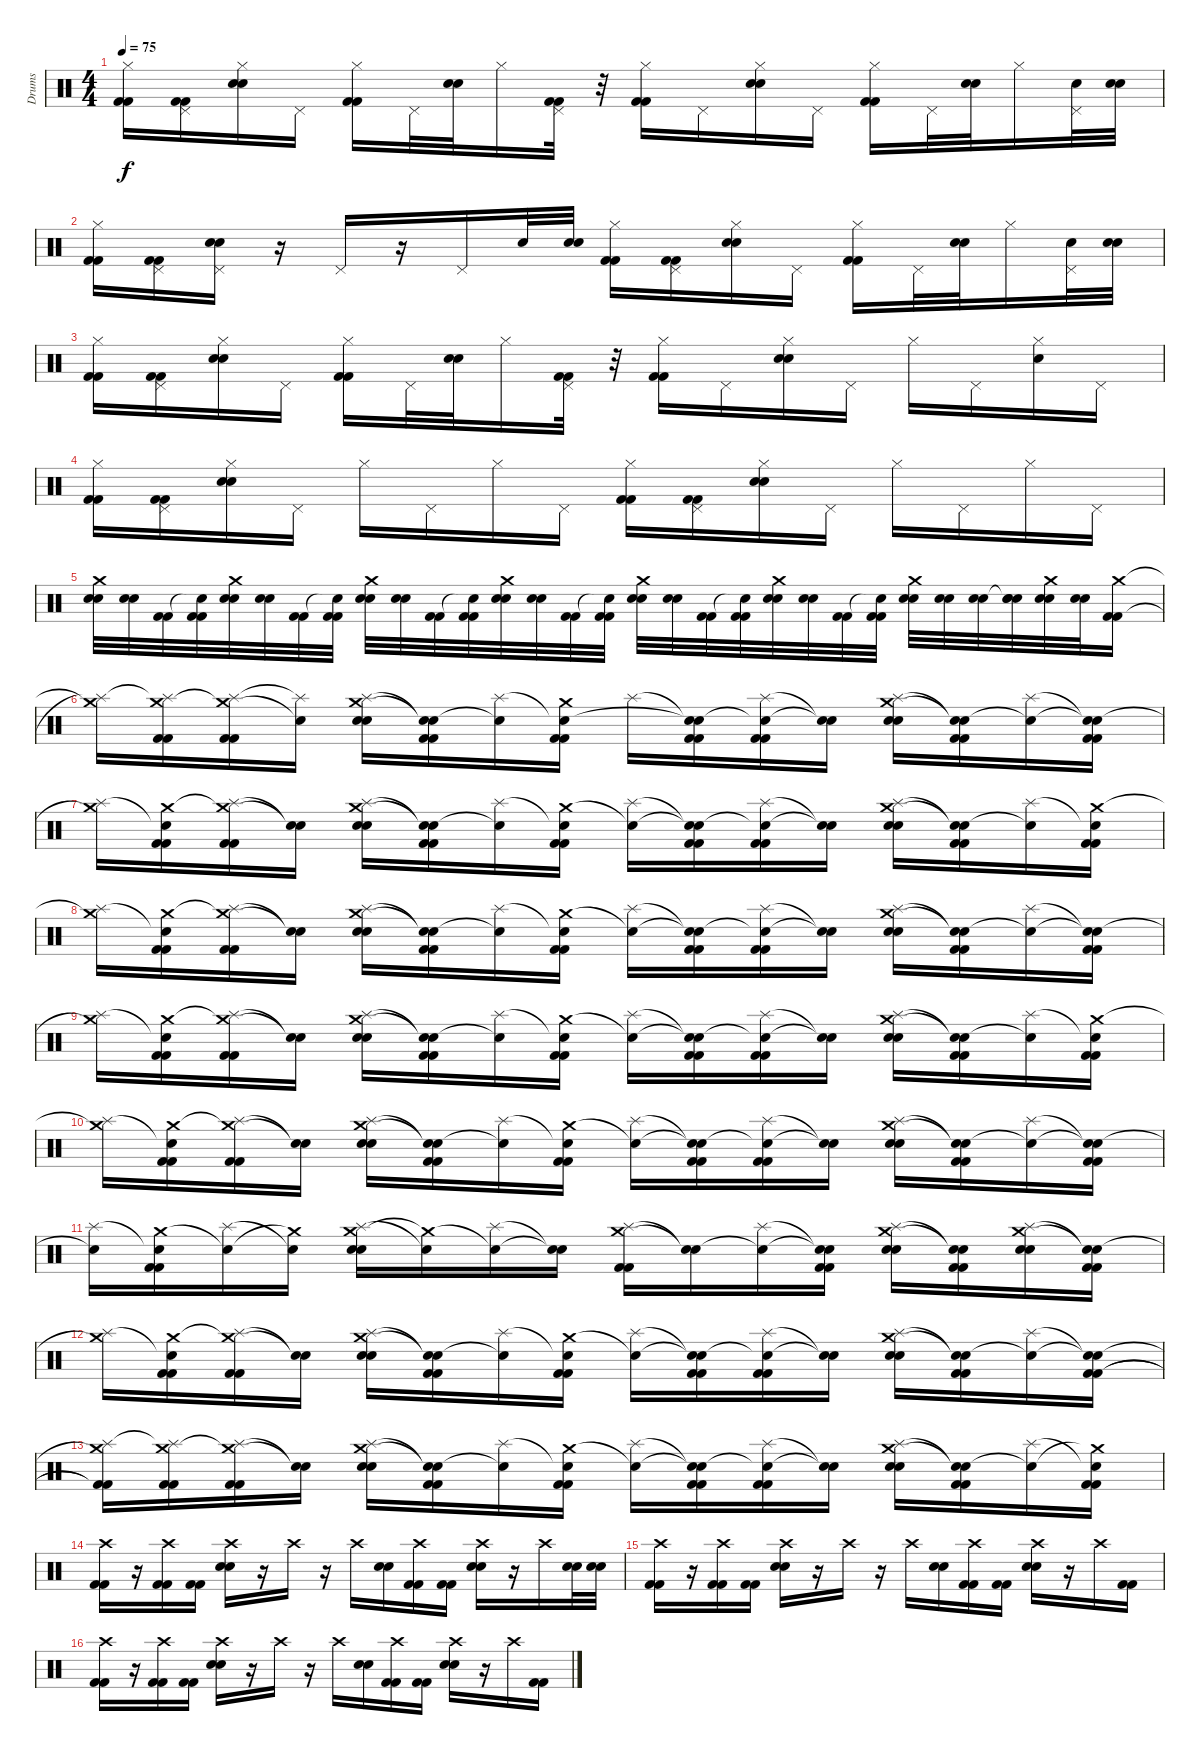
\track ("Drums" "Drums") {instrument percussion}
\staff {score}
\articulation defaults
\ts (4 4)
\tempo 75
\clef neutral
\ks c
("Hi-Hat (closed)" "Kick (hit) 2" "Kick (hit) 2").16{dy f} ("Pedal Hi-Hat (hit)" "Kick (hit) 2" "Kick (hit) 2").16 ("Hi-Hat (closed)" "Electric Snare (hit)" "Electric Snare (hit)").16 "Pedal Hi-Hat (hit)".16 ("Hi-Hat (closed)" "Kick (hit) 2" "Kick (hit) 2").16 "Pedal Hi-Hat (hit)".32 ("Electric Snare (hit)" "Electric Snare (hit)").32 "Hi-Hat (closed)".16 ("Pedal Hi-Hat (hit)" "Kick (hit) 2" "Kick (hit) 2").32 r.32 ("Hi-Hat (closed)" "Kick (hit) 2" "Kick (hit) 2").16 "Pedal Hi-Hat (hit)".16 ("Hi-Hat (closed)" "Electric Snare (hit)" "Electric Snare (hit)").16 "Pedal Hi-Hat (hit)".16 ("Hi-Hat (closed)" "Kick (hit) 2" "Kick (hit) 2").16 "Pedal Hi-Hat (hit)".32 ("Electric Snare (hit)" "Electric Snare (hit)").32 "Hi-Hat (closed)".16 ("Pedal Hi-Hat (hit)" "Electric Snare (hit)").32 ("Electric Snare (hit)" "Electric Snare (hit)").32 |
("Hi-Hat (closed)" "Kick (hit) 2" "Kick (hit) 2").16 ("Pedal Hi-Hat (hit)" "Kick (hit) 2" "Kick (hit) 2").16 ("Pedal Hi-Hat (hit)" "Electric Snare (hit)" "Electric Snare (hit)").16 r.16 "Pedal Hi-Hat (hit)".16 r.16 "Pedal Hi-Hat (hit)".16 "Electric Snare (hit)".32 ("Electric Snare (hit)" "Electric Snare (hit)").32 ("Hi-Hat (closed)" "Kick (hit) 2" "Kick (hit) 2").16 ("Pedal Hi-Hat (hit)" "Kick (hit) 2" "Kick (hit) 2").16 ("Hi-Hat (closed)" "Electric Snare (hit)" "Electric Snare (hit)").16 "Pedal Hi-Hat (hit)".16 ("Hi-Hat (closed)" "Kick (hit) 2" "Kick (hit) 2").16 "Pedal Hi-Hat (hit)".32 ("Electric Snare (hit)" "Electric Snare (hit)").32 "Hi-Hat (closed)".16 ("Pedal Hi-Hat (hit)" "Electric Snare (hit)").32 ("Electric Snare (hit)" "Electric Snare (hit)").32 |
("Hi-Hat (closed)" "Kick (hit) 2" "Kick (hit) 2").16 ("Pedal Hi-Hat (hit)" "Kick (hit) 2" "Kick (hit) 2").16 ("Hi-Hat (closed)" "Electric Snare (hit)" "Electric Snare (hit)").16 "Pedal Hi-Hat (hit)".16 ("Hi-Hat (closed)" "Kick (hit) 2" "Kick (hit) 2").16 "Pedal Hi-Hat (hit)".32 ("Electric Snare (hit)" "Electric Snare (hit)").32 "Hi-Hat (closed)".16 ("Pedal Hi-Hat (hit)" "Kick (hit) 2" "Kick (hit) 2").32 r.32 ("Hi-Hat (closed)" "Kick (hit) 2" "Kick (hit) 2").16 "Pedal Hi-Hat (hit)".16 ("Hi-Hat (closed)" "Electric Snare (hit)" "Electric Snare (hit)").16 "Pedal Hi-Hat (hit)".16 "Hi-Hat (closed)".16 "Pedal Hi-Hat (hit)".16 ("Hi-Hat (closed)" "Electric Snare (hit)").16 "Pedal Hi-Hat (hit)".16 |
("Hi-Hat (closed)" "Kick (hit) 2" "Kick (hit) 2").16 ("Pedal Hi-Hat (hit)" "Kick (hit) 2" "Kick (hit) 2").16 ("Hi-Hat (closed)" "Electric Snare (hit)" "Electric Snare (hit)").16 "Pedal Hi-Hat (hit)".16 "Hi-Hat (closed)".16 "Pedal Hi-Hat (hit)".16 "Hi-Hat (closed)".16 "Pedal Hi-Hat (hit)".16 ("Hi-Hat (closed)" "Kick (hit) 2" "Kick (hit) 2").16 ("Pedal Hi-Hat (hit)" "Kick (hit) 2" "Kick (hit) 2").16 ("Hi-Hat (closed)" "Electric Snare (hit)" "Electric Snare (hit)").16 "Pedal Hi-Hat (hit)".16 "Hi-Hat (closed)".16 "Pedal Hi-Hat (hit)".16 "Hi-Hat (closed)".16 "Pedal Hi-Hat (hit)".16 |
("Crash medium (hit)" "Electric Snare (hit)" "Electric Snare (hit)").32 ("Electric Snare (hit)" "Electric Snare (hit)").32 ("Kick (hit) 2" "Kick (hit) 2").32 ("Snare (hit)"{t} "Kick (hit) 2" "Kick (hit) 2").32 ("Crash medium (hit)" "Electric Snare (hit)" "Electric Snare (hit)").32 ("Electric Snare (hit)" "Electric Snare (hit)").32 ("Kick (hit) 2" "Kick (hit) 2").32 ("Snare (hit)"{t} "Kick (hit) 2" "Kick (hit) 2").32 ("Crash medium (hit)" "Electric Snare (hit)" "Electric Snare (hit)").32 ("Electric Snare (hit)" "Electric Snare (hit)").32 ("Kick (hit) 2" "Kick (hit) 2").32 ("Snare (hit)"{t} "Kick (hit) 2" "Kick (hit) 2").32 ("Crash medium (hit)" "Electric Snare (hit)" "Electric Snare (hit)").32 ("Electric Snare (hit)" "Electric Snare (hit)").32 ("Kick (hit) 2" "Kick (hit) 2").32 ("Snare (hit)"{t} "Kick (hit) 2" "Kick (hit) 2").32 ("Crash medium (hit)" "Electric Snare (hit)" "Electric Snare (hit)").32 ("Electric Snare (hit)" "Electric Snare (hit)").32 ("Kick (hit) 2" "Kick (hit) 2").32 ("Snare (hit)"{t} "Kick (hit) 2" "Kick (hit) 2").32 ("Crash medium (hit)" "Electric Snare (hit)" "Electric Snare (hit)").32 ("Electric Snare (hit)" "Electric Snare (hit)").32 ("Kick (hit) 2" "Kick (hit) 2").32 ("Snare (hit)"{t} "Kick (hit) 2" "Kick (hit) 2").32 ("Crash medium (hit)" "Electric Snare (hit)" "Electric Snare (hit)").32 ("Electric Snare (hit)" "Electric Snare (hit)").32 ("Electric Snare (hit)" "Electric Snare (hit)").32 ("Snare (hit)"{t} "Electric Snare (hit)" "Electric Snare (hit)").32 ("Crash medium (hit)" "Electric Snare (hit)" "Electric Snare (hit)").32 ("Electric Snare (hit)" "Electric Snare (hit)").32 ("Crash medium (hit)" "Kick (hit) 2" "Kick (hit) 2").16 |
("Crash medium (hit)"{t} "Splash (hit)"{t}).16 ("Crash medium (hit)" "Splash (hit)"{t} "Kick (hit) 2" "Kick (hit) 2").16 ("Crash medium (hit)"{t} "Splash (hit)" "Kick (hit) 2" "Kick (hit) 2").16 ("Snare (hit)"{t} "Splash (hit)"{t}).16 ("Crash medium (hit)" "Splash (hit)" "Electric Snare (hit)" "Electric Snare (hit)").16 ("Snare (hit)"{t} "Snare (hit)"{t} "Kick (hit) 2" "Kick (hit) 2").16 ("Snare (hit)"{t} "Splash (hit)").16 ("Crash medium (hit)" "Snare (hit)"{t} "Kick (hit) 2" "Kick (hit) 2").16 "Splash (hit)".16 ("Snare (hit)"{t} "Snare (hit)"{t} "Kick (hit) 2" "Kick (hit) 2").16 ("Snare (hit)"{t} "Splash (hit)" "Kick (hit) 2" "Kick (hit) 2").16 ("Snare (hit)"{t} "Snare (hit)"{t}).16 ("Crash medium (hit)" "Splash (hit)" "Electric Snare (hit)" "Electric Snare (hit)").16 ("Snare (hit)"{t} "Snare (hit)"{t} "Kick (hit) 2" "Kick (hit) 2").16 ("Snare (hit)"{t} "Splash (hit)").16 ("Snare (hit)"{t} "Snare (hit)"{t} "Kick (hit) 2" "Kick (hit) 2").16 |
("Crash medium (hit)"{t} "Splash (hit)").16 ("Crash medium (hit)" "Snare (hit)"{t} "Kick (hit) 2" "Kick (hit) 2").16 ("Crash medium (hit)"{t} "Splash (hit)" "Kick (hit) 2" "Kick (hit) 2").16 ("Snare (hit)"{t} "Snare (hit)"{t}).16 ("Crash medium (hit)" "Splash (hit)" "Electric Snare (hit)" "Electric Snare (hit)").16 ("Snare (hit)"{t} "Snare (hit)"{t} "Kick (hit) 2" "Kick (hit) 2").16 ("Snare (hit)"{t} "Splash (hit)").16 ("Crash medium (hit)" "Snare (hit)"{t} "Kick (hit) 2" "Kick (hit) 2").16 ("Snare (hit)"{t} "Splash (hit)").16 ("Snare (hit)"{t} "Snare (hit)"{t} "Kick (hit) 2" "Kick (hit) 2").16 ("Snare (hit)"{t} "Splash (hit)" "Kick (hit) 2" "Kick (hit) 2").16 ("Snare (hit)"{t} "Snare (hit)"{t}).16 ("Crash medium (hit)" "Splash (hit)" "Electric Snare (hit)" "Electric Snare (hit)").16 ("Snare (hit)"{t} "Snare (hit)"{t} "Kick (hit) 2" "Kick (hit) 2").16 ("Snare (hit)"{t} "Splash (hit)").16 ("Crash medium (hit)" "Snare (hit)"{t} "Kick (hit) 2" "Kick (hit) 2").16 |
("Crash medium (hit)"{t} "Splash (hit)").16 ("Crash medium (hit)" "Snare (hit)"{t} "Kick (hit) 2" "Kick (hit) 2").16 ("Crash medium (hit)"{t} "Splash (hit)" "Kick (hit) 2" "Kick (hit) 2").16 ("Snare (hit)"{t} "Snare (hit)"{t}).16 ("Crash medium (hit)" "Splash (hit)" "Electric Snare (hit)" "Electric Snare (hit)").16 ("Snare (hit)"{t} "Snare (hit)"{t} "Kick (hit) 2" "Kick (hit) 2").16 ("Snare (hit)"{t} "Splash (hit)").16 ("Crash medium (hit)" "Snare (hit)"{t} "Kick (hit) 2" "Kick (hit) 2").16 ("Snare (hit)"{t} "Splash (hit)").16 ("Snare (hit)"{t} "Snare (hit)"{t} "Kick (hit) 2" "Kick (hit) 2").16 ("Snare (hit)"{t} "Splash (hit)" "Kick (hit) 2" "Kick (hit) 2").16 ("Snare (hit)"{t} "Snare (hit)"{t}).16 ("Crash medium (hit)" "Splash (hit)" "Electric Snare (hit)" "Electric Snare (hit)").16 ("Snare (hit)"{t} "Snare (hit)"{t} "Kick (hit) 2" "Kick (hit) 2").16 ("Snare (hit)"{t} "Splash (hit)").16 ("Snare (hit)"{t} "Snare (hit)"{t} "Kick (hit) 2" "Kick (hit) 2").16 |
("Crash medium (hit)"{t} "Splash (hit)").16 ("Crash medium (hit)" "Snare (hit)"{t} "Kick (hit) 2" "Kick (hit) 2").16 ("Crash medium (hit)"{t} "Splash (hit)" "Kick (hit) 2" "Kick (hit) 2").16 ("Snare (hit)"{t} "Snare (hit)"{t}).16 ("Crash medium (hit)" "Splash (hit)" "Electric Snare (hit)" "Electric Snare (hit)").16 ("Snare (hit)"{t} "Snare (hit)"{t} "Kick (hit) 2" "Kick (hit) 2").16 ("Snare (hit)"{t} "Splash (hit)").16 ("Crash medium (hit)" "Snare (hit)"{t} "Kick (hit) 2" "Kick (hit) 2").16 ("Snare (hit)"{t} "Splash (hit)").16 ("Snare (hit)"{t} "Snare (hit)"{t} "Kick (hit) 2" "Kick (hit) 2").16 ("Snare (hit)"{t} "Splash (hit)" "Kick (hit) 2" "Kick (hit) 2").16 ("Snare (hit)"{t} "Snare (hit)"{t}).16 ("Crash medium (hit)" "Splash (hit)" "Electric Snare (hit)" "Electric Snare (hit)").16 ("Snare (hit)"{t} "Snare (hit)"{t} "Kick (hit) 2" "Kick (hit) 2").16 ("Snare (hit)"{t} "Splash (hit)").16 ("Crash medium (hit)" "Snare (hit)"{t} "Kick (hit) 2" "Kick (hit) 2").16 |
("Crash medium (hit)"{t} "Splash (hit)").16 ("Crash medium (hit)" "Snare (hit)"{t} "Kick (hit) 2" "Kick (hit) 2").16 ("Crash medium (hit)"{t} "Splash (hit)" "Kick (hit) 2" "Kick (hit) 2").16 ("Snare (hit)"{t} "Snare (hit)"{t}).16 ("Crash medium (hit)" "Splash (hit)" "Electric Snare (hit)" "Electric Snare (hit)").16 ("Snare (hit)"{t} "Snare (hit)"{t} "Kick (hit) 2" "Kick (hit) 2").16 ("Snare (hit)"{t} "Splash (hit)").16 ("Crash medium (hit)" "Snare (hit)"{t} "Kick (hit) 2" "Kick (hit) 2").16 ("Snare (hit)"{t} "Splash (hit)").16 ("Snare (hit)"{t} "Snare (hit)"{t} "Kick (hit) 2" "Kick (hit) 2").16 ("Snare (hit)"{t} "Splash (hit)" "Kick (hit) 2" "Kick (hit) 2").16 ("Snare (hit)"{t} "Snare (hit)"{t}).16 ("Crash medium (hit)" "Splash (hit)" "Electric Snare (hit)" "Electric Snare (hit)").16 ("Snare (hit)"{t} "Snare (hit)"{t} "Kick (hit) 2" "Kick (hit) 2").16 ("Snare (hit)"{t} "Splash (hit)").16 ("Snare (hit)"{t} "Snare (hit)"{t} "Kick (hit) 2" "Kick (hit) 2").16 |
("Snare (hit)"{t} "Splash (hit)").16 ("Crash medium (hit)" "Snare (hit)"{t} "Kick (hit) 2" "Kick (hit) 2").16 ("Snare (hit)"{t} "Splash (hit)").16 ("Crash medium (hit)"{t} "Snare (hit)"{t}).16 ("Crash medium (hit)" "Splash (hit)" "Electric Snare (hit)" "Electric Snare (hit)").16 ("Crash medium (hit)"{t} "Snare (hit)"{t}).16 ("Snare (hit)"{t} "Splash (hit)").16 ("Snare (hit)"{t} "Snare (hit)"{t}).16 ("Crash medium (hit)" "Splash (hit)" "Kick (hit) 2" "Kick (hit) 2").16 ("Snare (hit)"{t} "Snare (hit)"{t}).16 ("Snare (hit)"{t} "Splash (hit)").16 ("Snare (hit)"{t} "Snare (hit)"{t} "Kick (hit) 2" "Kick (hit) 2").16 ("Crash medium (hit)" "Splash (hit)" "Electric Snare (hit)" "Electric Snare (hit)").16 ("Snare (hit)"{t} "Snare (hit)"{t} "Kick (hit) 2" "Kick (hit) 2").16 ("Crash medium (hit)" "Splash (hit)" "Electric Snare (hit)" "Electric Snare (hit)").16 ("Snare (hit)"{t} "Snare (hit)"{t} "Kick (hit) 2" "Kick (hit) 2").16 |
("Crash medium (hit)"{t} "Splash (hit)").16 ("Crash medium (hit)" "Snare (hit)"{t} "Kick (hit) 2" "Kick (hit) 2").16 ("Crash medium (hit)"{t} "Splash (hit)" "Kick (hit) 2" "Kick (hit) 2").16 ("Snare (hit)"{t} "Snare (hit)"{t}).16 ("Crash medium (hit)" "Splash (hit)" "Electric Snare (hit)" "Electric Snare (hit)").16 ("Snare (hit)"{t} "Snare (hit)"{t} "Kick (hit) 2" "Kick (hit) 2").16 ("Snare (hit)"{t} "Splash (hit)").16 ("Crash medium (hit)" "Snare (hit)"{t} "Kick (hit) 2" "Kick (hit) 2").16 ("Snare (hit)"{t} "Splash (hit)").16 ("Snare (hit)"{t} "Snare (hit)"{t} "Kick (hit) 2" "Kick (hit) 2").16 ("Snare (hit)"{t} "Splash (hit)" "Kick (hit) 2" "Kick (hit) 2").16 ("Snare (hit)"{t} "Snare (hit)"{t}).16 ("Crash medium (hit)" "Splash (hit)" "Electric Snare (hit)" "Electric Snare (hit)").16 ("Snare (hit)"{t} "Snare (hit)"{t} "Kick (hit) 2" "Kick (hit) 2").16 ("Snare (hit)"{t} "Splash (hit)").16 ("Snare (hit)"{t} "Snare (hit)"{t} "Kick (hit) 2" "Kick (hit) 2").16 |
("Crash medium (hit)"{t} "Splash (hit)" "Kick (hit) 2"{t} "Kick (hit) 2"{t}).16 ("Crash medium (hit)" "Splash (hit)"{t} "Kick (hit) 2" "Kick (hit) 2").16 ("Crash medium (hit)"{t} "Splash (hit)" "Kick (hit) 2" "Kick (hit) 2").16 ("Snare (hit)"{t} "Snare (hit)"{t}).16 ("Crash medium (hit)" "Splash (hit)" "Electric Snare (hit)" "Electric Snare (hit)").16 ("Snare (hit)"{t} "Snare (hit)"{t} "Kick (hit) 2" "Kick (hit) 2").16 ("Snare (hit)"{t} "Splash (hit)").16 ("Crash medium (hit)" "Snare (hit)"{t} "Kick (hit) 2" "Kick (hit) 2").16 ("Snare (hit)"{t} "Splash (hit)").16 ("Snare (hit)"{t} "Snare (hit)"{t} "Kick (hit) 2" "Kick (hit) 2").16 ("Snare (hit)"{t} "Splash (hit)" "Kick (hit) 2" "Kick (hit) 2").16 ("Snare (hit)"{t} "Snare (hit)"{t}).16 ("Crash medium (hit)" "Splash (hit)" "Electric Snare (hit)" "Electric Snare (hit)").16 ("Snare (hit)"{t} "Snare (hit)"{t} "Kick (hit) 2" "Kick (hit) 2").16 ("Snare (hit)"{t} "Splash (hit)").16 ("Crash medium (hit)"{t} "Snare (hit)"{t} "Kick (hit) 2" "Kick (hit) 2").16 |
("Crash high (hit)" "Kick (hit) 2" "Kick (hit) 2").16 r.16 ("Crash high (hit)" "Kick (hit) 2" "Kick (hit) 2").16 ("Kick (hit) 2" "Kick (hit) 2").16 ("Crash high (hit)" "Electric Snare (hit)" "Electric Snare (hit)").16 r.16 "Crash high (hit)".16 r.16 "Crash high (hit)".16 ("Electric Snare (hit)" "Electric Snare (hit)").16 ("Crash high (hit)" "Kick (hit) 2" "Kick (hit) 2").16 ("Kick (hit) 2" "Kick (hit) 2").16 ("Crash high (hit)" "Electric Snare (hit)" "Electric Snare (hit)").16 r.16 "Crash high (hit)".16 ("Electric Snare (hit)" "Electric Snare (hit)").32 ("Electric Snare (hit)" "Electric Snare (hit)").32 |
("Crash high (hit)" "Kick (hit) 2" "Kick (hit) 2").16 r.16 ("Crash high (hit)" "Kick (hit) 2" "Kick (hit) 2").16 ("Kick (hit) 2" "Kick (hit) 2").16 ("Crash high (hit)" "Electric Snare (hit)" "Electric Snare (hit)").16 r.16 "Crash high (hit)".16 r.16 "Crash high (hit)".16 ("Electric Snare (hit)" "Electric Snare (hit)").16 ("Crash high (hit)" "Kick (hit) 2" "Kick (hit) 2").16 ("Kick (hit) 2" "Kick (hit) 2").16 ("Crash high (hit)" "Electric Snare (hit)" "Electric Snare (hit)").16 r.16 "Crash high (hit)".16 ("Kick (hit) 2" "Kick (hit) 2").16 |
("Crash high (hit)" "Kick (hit) 2" "Kick (hit) 2").16 r.16 ("Crash high (hit)" "Kick (hit) 2" "Kick (hit) 2").16 ("Kick (hit) 2" "Kick (hit) 2").16 ("Crash high (hit)" "Electric Snare (hit)" "Electric Snare (hit)").16 r.16 "Crash high (hit)".16 r.16 "Crash high (hit)".16 ("Electric Snare (hit)" "Electric Snare (hit)").16 ("Crash high (hit)" "Kick (hit) 2" "Kick (hit) 2").16 ("Kick (hit) 2" "Kick (hit) 2").16 ("Crash high (hit)" "Electric Snare (hit)" "Electric Snare (hit)").16 r.16 "Crash high (hit)".16 ("Kick (hit) 2" "Kick (hit) 2").16
